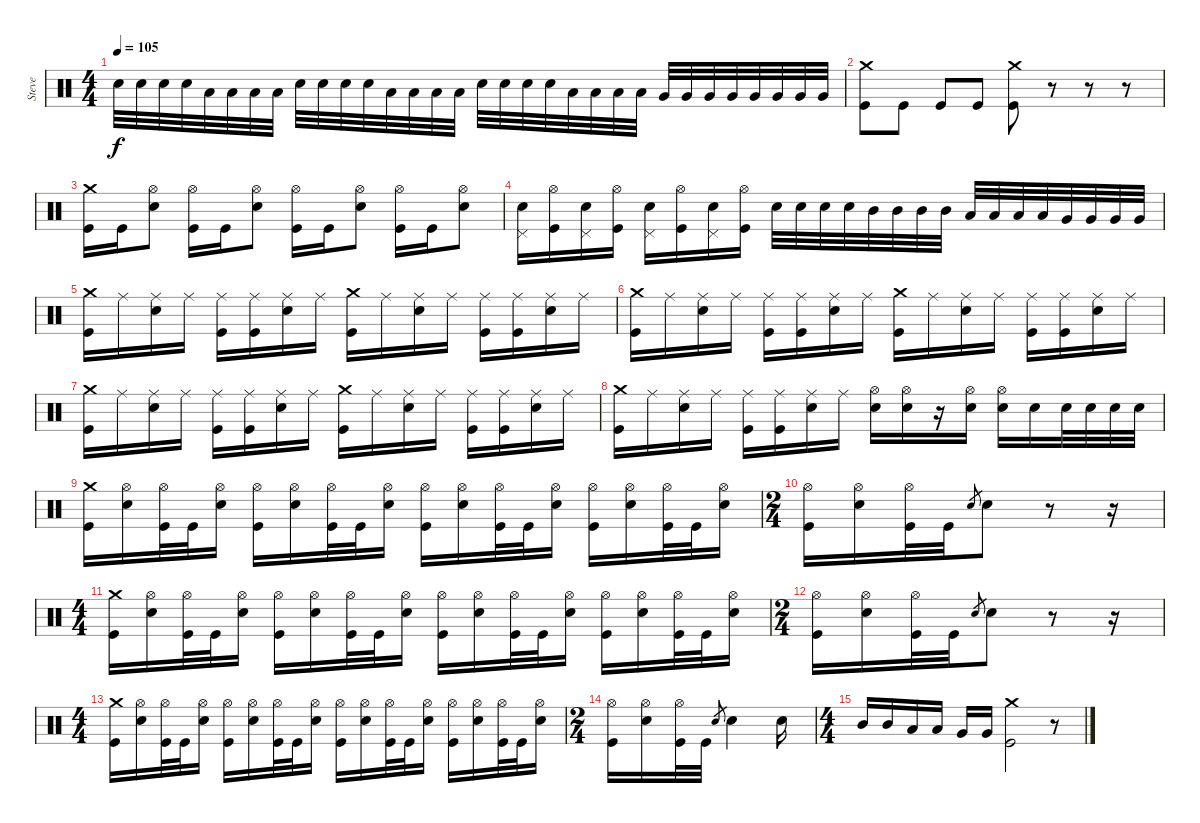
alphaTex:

\track ("Steve" "Steve") {instrument percussion}
\staff {score}
\articulation defaults
\ts (4 4)
\tempo 105
\clef neutral
\ks c "Electric Snare (hit)".32{dy f} "Electric Snare (hit)".32 "Electric Snare (hit)".32 "Electric Snare (hit)".32 "Low Tom (hit)".32 "Low Tom (hit)".32 "Low Tom (hit)".32 "Low Tom (hit)".32 "Electric Snare (hit)".32 "Electric Snare (hit)".32 "Electric Snare (hit)".32 "Electric Snare (hit)".32 "Low Tom (hit)".32 "Low Tom (hit)".32 "Low Tom (hit)".32 "Low Tom (hit)".32 "Electric Snare (hit)".32 "Electric Snare (hit)".32 "Electric Snare (hit)".32 "Electric Snare (hit)".32 "Low Tom (hit)".32 "Low Tom (hit)".32 "Low Tom (hit)".32 "Low Tom (hit)".32 "Very Low Tom (hit)".32 "Very Low Tom (hit)".32 "Very Low Tom (hit)".32 "Very Low Tom (hit)".32 "Very Low Tom (hit)".32 "Very Low Tom (hit)".32 "Very Low Tom (hit)".32 "Very Low Tom (hit)".32
|
("Crash medium (hit)" "Kick (hit)").8 "Kick (hit)".8 "Kick (hit)".8 "Kick (hit)".8 ("Crash medium (hit)" "Kick (hit)").8 r.8 r.8 r.8 |
("Crash medium (hit)" "Kick (hit)").16 "Kick (hit)".16 ("Hi-Hat (open)" "Electric Snare (hit)").8 ("Hi-Hat (open)" "Kick (hit)").16 "Kick (hit)".16 ("Hi-Hat (open)" "Electric Snare (hit)").8 ("Hi-Hat (open)" "Kick (hit)").16 "Kick (hit)".16 ("Hi-Hat (open)" "Electric Snare (hit)").8 ("Hi-Hat (open)" "Kick (hit)").16 "Kick (hit)".16 ("Hi-Hat (open)" "Electric Snare (hit)").8 |
("Pedal Hi-Hat (hit)" "Electric Snare (hit)").16 ("Hi-Hat (open)" "Kick (hit)").16 ("Pedal Hi-Hat (hit)" "Electric Snare (hit)").16 ("Hi-Hat (open)" "Kick (hit)").16 ("Pedal Hi-Hat (hit)" "Electric Snare (hit)").16 ("Hi-Hat (open)" "Kick (hit)").16 ("Pedal Hi-Hat (hit)" "Electric Snare (hit)").16 ("Hi-Hat (open)" "Kick (hit)").16 "Electric Snare (hit)".32 "Electric Snare (hit)".32 "Electric Snare (hit)".32 "Electric Snare (hit)".32 "Mid Tom (hit)".32 "Mid Tom (hit)".32 "Mid Tom (hit)".32 "Mid Tom (hit)".32 "Low Tom (hit)".32 "Low Tom (hit)".32 "Low Tom (hit)".32 "Low Tom (hit)".32 "Very Low Tom (hit)".32 "Very Low Tom (hit)".32 "Very Low Tom (hit)".32 "Very Low Tom (hit)".32 |
("Crash medium (hit)" "Kick (hit)").16 "Ride (middle)".16 ("Ride (middle)" "Electric Snare (hit)").16 "Ride (middle)".16 ("Ride (middle)" "Kick (hit)").16 ("Ride (middle)" "Kick (hit)").16 ("Ride (middle)" "Electric Snare (hit)").16 "Ride (middle)".16 ("Crash medium (hit)" "Kick (hit)").16 "Ride (middle)".16 ("Ride (middle)" "Electric Snare (hit)").16 "Ride (middle)".16 ("Ride (middle)" "Kick (hit)").16 ("Ride (middle)" "Kick (hit)").16 ("Ride (middle)" "Electric Snare (hit)").16 "Ride (middle)".16 |
("Crash medium (hit)" "Kick (hit)").16 "Ride (middle)".16 ("Ride (middle)" "Electric Snare (hit)").16 "Ride (middle)".16 ("Ride (middle)" "Kick (hit)").16 ("Ride (middle)" "Kick (hit)").16 ("Ride (middle)" "Electric Snare (hit)").16 "Ride (middle)".16 ("Crash medium (hit)" "Kick (hit)").16 "Ride (middle)".16 ("Ride (middle)" "Electric Snare (hit)").16 "Ride (middle)".16 ("Ride (middle)" "Kick (hit)").16 ("Ride (middle)" "Kick (hit)").16 ("Ride (middle)" "Electric Snare (hit)").16 "Ride (middle)".16 |
("Crash medium (hit)" "Kick (hit)").16 "Ride (middle)".16 ("Ride (middle)" "Electric Snare (hit)").16 "Ride (middle)".16 ("Ride (middle)" "Kick (hit)").16 ("Ride (middle)" "Kick (hit)").16 ("Ride (middle)" "Electric Snare (hit)").16 "Ride (middle)".16 ("Crash medium (hit)" "Kick (hit)").16 "Ride (middle)".16 ("Ride (middle)" "Electric Snare (hit)").16 "Ride (middle)".16 ("Ride (middle)" "Kick (hit)").16 ("Ride (middle)" "Kick (hit)").16 ("Ride (middle)" "Electric Snare (hit)").16 "Ride (middle)".16 |
("Crash medium (hit)" "Kick (hit)").16 "Ride (middle)".16 ("Ride (middle)" "Electric Snare (hit)").16 "Ride (middle)".16 ("Ride (middle)" "Kick (hit)").16 ("Ride (middle)" "Kick (hit)").16 ("Ride (middle)" "Electric Snare (hit)").16 "Ride (middle)".16 ("Hi-Hat (open)" "Electric Snare (hit)").16 ("Hi-Hat (open)" "Electric Snare (hit)").16 r.16 ("Hi-Hat (open)" "Electric Snare (hit)").16 ("Hi-Hat (open)" "Electric Snare (hit)").16 "Electric Snare (hit)".16 "Electric Snare (hit)".32 "Electric Snare (hit)".32 "Electric Snare (hit)".32 "Electric Snare (hit)".32 |
("Crash medium (hit)" "Kick (hit)").16 ("Hi-Hat (open)" "Electric Snare (hit)").16 ("Hi-Hat (open)" "Kick (hit)").32 "Kick (hit)".32 ("Hi-Hat (open)" "Electric Snare (hit)").16 ("Hi-Hat (open)" "Kick (hit)").16 ("Hi-Hat (open)" "Electric Snare (hit)").16 ("Hi-Hat (open)" "Kick (hit)").32 "Kick (hit)".32 ("Hi-Hat (open)" "Electric Snare (hit)").16 ("Hi-Hat (open)" "Kick (hit)").16 ("Hi-Hat (open)" "Electric Snare (hit)").16 ("Hi-Hat (open)" "Kick (hit)").32 "Kick (hit)".32 ("Hi-Hat (open)" "Electric Snare (hit)").16 ("Hi-Hat (open)" "Kick (hit)").16 ("Hi-Hat (open)" "Electric Snare (hit)").16 ("Hi-Hat (open)" "Kick (hit)").32 "Kick (hit)".32 ("Hi-Hat (open)" "Electric Snare (hit)").16 |
\ts (2 4)
("Hi-Hat (open)" "Kick (hit)").16 ("Hi-Hat (open)" "Electric Snare (hit)").16 ("Hi-Hat (open)" "Kick (hit)").32 "Kick (hit)".32 "Electric Snare (hit)".8{gr} "Electric Snare (hit)".8 r.8 r.16 |
\ts (4 4)
("Crash medium (hit)" "Kick (hit)").16 ("Hi-Hat (open)" "Electric Snare (hit)").16 ("Hi-Hat (open)" "Kick (hit)").32 "Kick (hit)".32 ("Hi-Hat (open)" "Electric Snare (hit)").16 ("Hi-Hat (open)" "Kick (hit)").16 ("Hi-Hat (open)" "Electric Snare (hit)").16 ("Hi-Hat (open)" "Kick (hit)").32 "Kick (hit)".32 ("Hi-Hat (open)" "Electric Snare (hit)").16 ("Hi-Hat (open)" "Kick (hit)").16 ("Hi-Hat (open)" "Electric Snare (hit)").16 ("Hi-Hat (open)" "Kick (hit)").32 "Kick (hit)".32 ("Hi-Hat (open)" "Electric Snare (hit)").16 ("Hi-Hat (open)" "Kick (hit)").16 ("Hi-Hat (open)" "Electric Snare (hit)").16 ("Hi-Hat (open)" "Kick (hit)").32 "Kick (hit)".32 ("Hi-Hat (open)" "Electric Snare (hit)").16 |
\ts (2 4)
("Hi-Hat (open)" "Kick (hit)").16 ("Hi-Hat (open)" "Electric Snare (hit)").16 ("Hi-Hat (open)" "Kick (hit)").32 "Kick (hit)".32 "Electric Snare (hit)".8{gr} "Electric Snare (hit)".8 r.8 r.16 |
\ts (4 4)
("Crash medium (hit)" "Kick (hit)").16 ("Hi-Hat (open)" "Electric Snare (hit)").16 ("Hi-Hat (open)" "Kick (hit)").32 "Kick (hit)".32 ("Hi-Hat (open)" "Electric Snare (hit)").16 ("Hi-Hat (open)" "Kick (hit)").16 ("Hi-Hat (open)" "Electric Snare (hit)").16 ("Hi-Hat (open)" "Kick (hit)").32 "Kick (hit)".32 ("Hi-Hat (open)" "Electric Snare (hit)").16 ("Hi-Hat (open)" "Kick (hit)").16 ("Hi-Hat (open)" "Electric Snare (hit)").16 ("Hi-Hat (open)" "Kick (hit)").32 "Kick (hit)".32 ("Hi-Hat (open)" "Electric Snare (hit)").16 ("Hi-Hat (open)" "Kick (hit)").16 ("Hi-Hat (open)" "Electric Snare (hit)").16 ("Hi-Hat (open)" "Kick (hit)").32 "Kick (hit)".32 ("Hi-Hat (open)" "Electric Snare (hit)").16 |
\ts (2 4)
("Hi-Hat (open)" "Kick (hit)").16 ("Hi-Hat (open)" "Electric Snare (hit)").16 ("Hi-Hat (open)" "Kick (hit)").32 "Kick (hit)".32 "Electric Snare (hit)".8{gr} "Electric Snare (hit)".4 "Electric Snare (hit)".16 |
\ts (4 4)
"Mid Tom (hit)".16 "Mid Tom (hit)".16 "Low Tom (hit)".16 "Low Tom (hit)".16 "Very Low Tom (hit)".16 "Very Low Tom (hit)".16 ("Crash medium (hit)" "Kick (hit)").2 r.8
